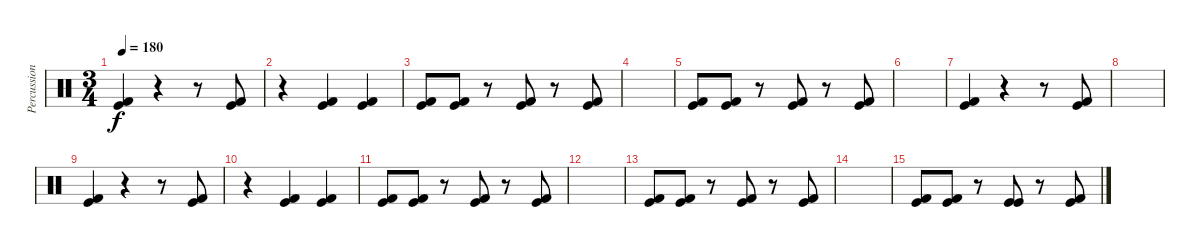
\track ("Percussion" "Percussion") {instrument percussion}
\staff {score}
\articulation defaults
\ts (3 4)
\tempo 180
\clef neutral
\ks c
("Kick (hit) 2" "Kick (hit)").4{dy f} r.4 r.8 ("Kick (hit) 2" "Kick (hit)").8 |
r.4 ("Kick (hit) 2" "Kick (hit)").4 ("Kick (hit) 2" "Kick (hit)").4 |
("Kick (hit) 2" "Kick (hit)").8 ("Kick (hit) 2" "Kick (hit)").8 r.8 ("Kick (hit) 2" "Kick (hit)").8 r.8 ("Kick (hit) 2" "Kick (hit)").8 |
|
("Kick (hit) 2" "Kick (hit)").8 ("Kick (hit) 2" "Kick (hit)").8 r.8 ("Kick (hit) 2" "Kick (hit)").8 r.8 ("Kick (hit) 2" "Kick (hit)").8 |
|
("Kick (hit) 2" "Kick (hit)").4 r.4 r.8 ("Kick (hit) 2" "Kick (hit)").8 |
|
("Kick (hit) 2" "Kick (hit)").4 r.4 r.8 ("Kick (hit) 2" "Kick (hit)").8 |
r.4 ("Kick (hit) 2" "Kick (hit)").4 ("Kick (hit) 2" "Kick (hit)").4 |
("Kick (hit) 2" "Kick (hit)").8 ("Kick (hit) 2" "Kick (hit)").8 r.8 ("Kick (hit) 2" "Kick (hit)").8 r.8 ("Kick (hit)" "Kick (hit) 2").8 |
|
("Kick (hit) 2" "Kick (hit)").8 ("Kick (hit) 2" "Kick (hit)").8 r.8 ("Kick (hit) 2" "Kick (hit)").8 r.8 ("Kick (hit) 2" "Kick (hit)").8 |
|
("Kick (hit) 2" "Kick (hit)").8 ("Kick (hit) 2" "Kick (hit)").8 r.8 ("Kick (hit)" "Kick (hit)").8 r.8 ("Kick (hit) 2" "Kick (hit)").8
